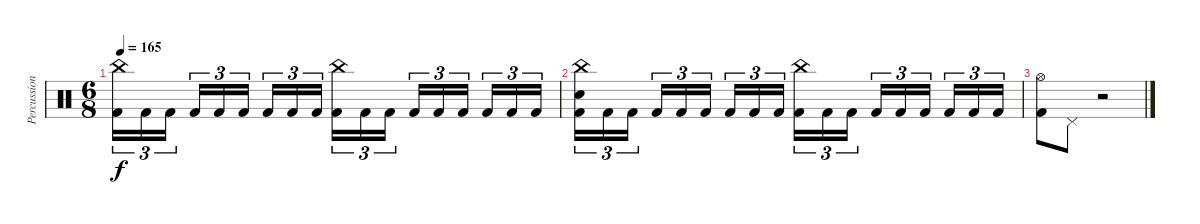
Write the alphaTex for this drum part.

\track ("Percussion" "Percussion") {instrument percussion}
\staff {score}
\articulation defaults
\ts (6 8)
\tempo 165
\clef neutral
\ks c
("China (hit)" "Kick (hit) 2").16{tu (3 2) dy f} "Kick (hit) 2".16{tu (3 2)} "Kick (hit) 2".16{tu (3 2)} "Kick (hit) 2".16{tu (3 2)} "Kick (hit) 2".16{tu (3 2)} "Kick (hit) 2".16{tu (3 2)} "Kick (hit) 2".16{tu (3 2)} "Kick (hit) 2".16{tu (3 2)} "Kick (hit) 2".16{tu (3 2)} ("China (hit)" "Kick (hit) 2").16{tu (3 2)} "Kick (hit) 2".16{tu (3 2)} "Kick (hit) 2".16{tu (3 2)} "Kick (hit) 2".16{tu (3 2)} "Kick (hit) 2".16{tu (3 2)} "Kick (hit) 2".16{tu (3 2)} "Kick (hit) 2".16{tu (3 2)} "Kick (hit) 2".16{tu (3 2)} "Kick (hit) 2".16{tu (3 2)} |
("China (hit)" "Electric Snare (hit)" "Kick (hit) 2").16{tu (3 2)} "Kick (hit) 2".16{tu (3 2)} "Kick (hit) 2".16{tu (3 2)} "Kick (hit) 2".16{tu (3 2)} "Kick (hit) 2".16{tu (3 2)} "Kick (hit) 2".16{tu (3 2)} "Kick (hit) 2".16{tu (3 2)} "Kick (hit) 2".16{tu (3 2)} "Kick (hit) 2".16{tu (3 2)} ("China (hit)" "Kick (hit) 2").16{tu (3 2)} "Kick (hit) 2".16{tu (3 2)} "Kick (hit) 2".16{tu (3 2)} "Kick (hit) 2".16{tu (3 2)} "Kick (hit) 2".16{tu (3 2)} "Kick (hit) 2".16{tu (3 2)} "Kick (hit) 2".16{tu (3 2)} "Kick (hit) 2".16{tu (3 2)} "Kick (hit) 2".16{tu (3 2)} |
("Hi-Hat (open)" "Kick (hit) 2").8 "Pedal Hi-Hat (hit)".8 r.2
